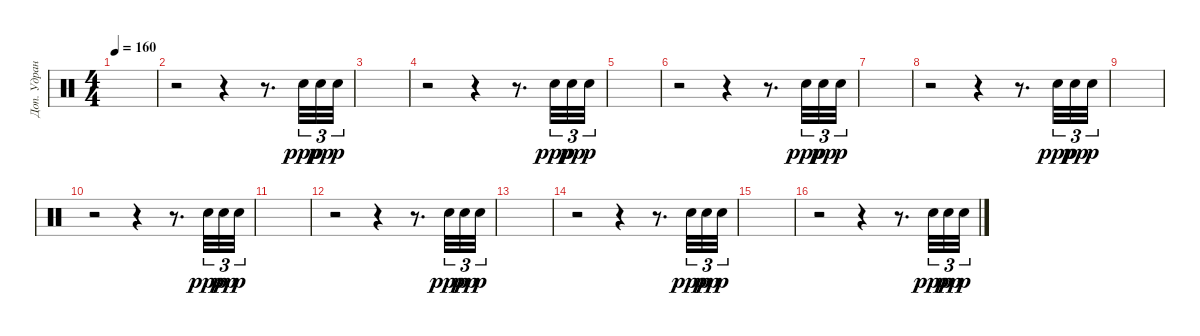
\track ("Доп. Удраные" "Доп. Удран") {instrument percussion}
\staff {score}
\articulation defaults
\ts (4 4)
\tempo 160
\clef neutral
\ks c
|
r.2 r.4 r.8{d} "Snare (hit) 2".32{tu (3 2) dy ppp} "Snare (hit) 2".32{tu (3 2) dy pp} "Snare (hit) 2".32{tu (3 2) dy p} |
|
r.2 r.4 r.8{d} "Snare (hit) 2".32{tu (3 2) dy ppp} "Snare (hit) 2".32{tu (3 2) dy pp} "Snare (hit) 2".32{tu (3 2) dy p} |
|
r.2 r.4 r.8{d} "Snare (hit) 2".32{tu (3 2) dy ppp} "Snare (hit) 2".32{tu (3 2) dy pp} "Snare (hit) 2".32{tu (3 2) dy p} |
|
r.2 r.4 r.8{d} "Snare (hit) 2".32{tu (3 2) dy ppp} "Snare (hit) 2".32{tu (3 2) dy pp} "Snare (hit) 2".32{tu (3 2) dy p} |
|
r.2 r.4 r.8{d} "Snare (hit) 2".32{tu (3 2) dy ppp} "Snare (hit) 2".32{tu (3 2) dy pp} "Snare (hit) 2".32{tu (3 2) dy p} |
|
r.2 r.4 r.8{d} "Snare (hit) 2".32{tu (3 2) dy ppp} "Snare (hit) 2".32{tu (3 2) dy pp} "Snare (hit) 2".32{tu (3 2) dy p} |
|
r.2 r.4 r.8{d} "Snare (hit) 2".32{tu (3 2) dy ppp} "Snare (hit) 2".32{tu (3 2) dy pp} "Snare (hit) 2".32{tu (3 2) dy p} |
|
r.2 r.4 r.8{d} "Snare (hit) 2".32{tu (3 2) dy ppp} "Snare (hit) 2".32{tu (3 2) dy pp} "Snare (hit) 2".32{tu (3 2) dy p}
